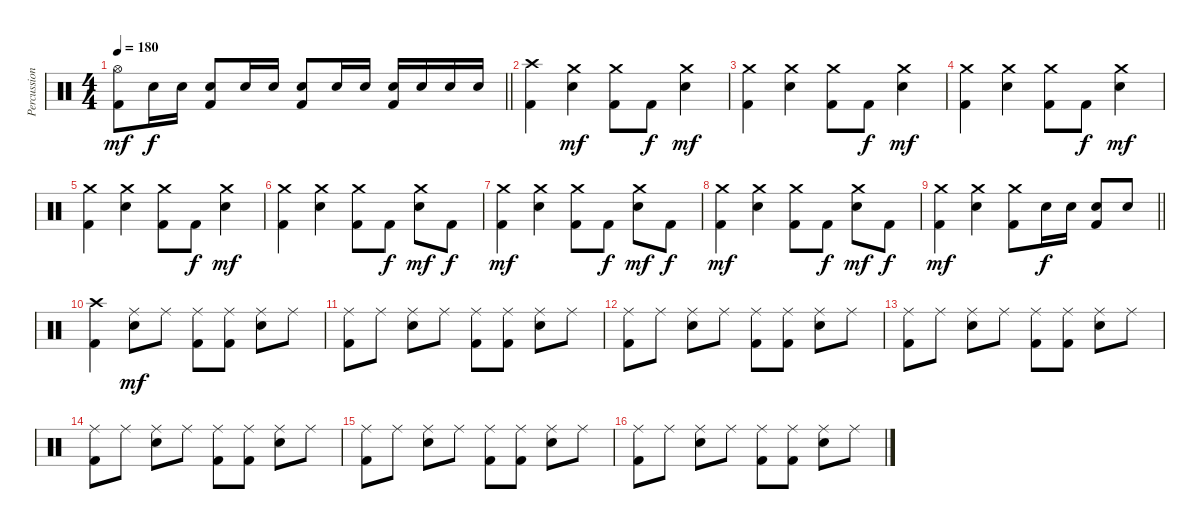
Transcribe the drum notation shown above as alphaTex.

\track ("Percussion" "Percussion") {instrument percussion}
\staff {score}
\articulation defaults
\ts (4 4)
\tempo 180
\clef neutral
\barLineRight lightlight
\ks c
("Hi-Hat (open)" "Kick (hit) 2").8{dy mf} "Electric Snare (hit)".16{dy f} "Electric Snare (hit)".16 ("Electric Snare (hit)" "Kick (hit) 2").8 "Electric Snare (hit)".16 "Electric Snare (hit)".16 ("Electric Snare (hit)" "Kick (hit) 2").8 "Electric Snare (hit)".16 "Electric Snare (hit)".16 ("Electric Snare (hit)" "Kick (hit) 2").16 "Electric Snare (hit)".16 "Electric Snare (hit)".16 "Electric Snare (hit)".16 |
("Crash high (hit)" "Kick (hit) 2").4 ("Crash medium (hit)" "Electric Snare (hit)").4{dy mf} ("Crash medium (hit)" "Kick (hit) 2").8 "Kick (hit) 2".8{dy f} ("Crash medium (hit)" "Electric Snare (hit)").4{dy mf} |
("Crash medium (hit)" "Kick (hit) 2").4 ("Crash medium (hit)" "Electric Snare (hit)").4 ("Crash medium (hit)" "Kick (hit) 2").8 "Kick (hit) 2".8{dy f} ("Crash medium (hit)" "Electric Snare (hit)").4{dy mf} |
("Crash medium (hit)" "Kick (hit) 2").4 ("Crash medium (hit)" "Electric Snare (hit)").4 ("Crash medium (hit)" "Kick (hit) 2").8 "Kick (hit) 2".8{dy f} ("Crash medium (hit)" "Electric Snare (hit)").4{dy mf} |
("Crash medium (hit)" "Kick (hit) 2").4 ("Crash medium (hit)" "Electric Snare (hit)").4 ("Crash medium (hit)" "Kick (hit) 2").8 "Kick (hit) 2".8{dy f} ("Crash medium (hit)" "Electric Snare (hit)").4{dy mf} |
("Crash medium (hit)" "Kick (hit) 2").4 ("Crash medium (hit)" "Electric Snare (hit)").4 ("Crash medium (hit)" "Kick (hit) 2").8 "Kick (hit) 2".8{dy f} ("Crash medium (hit)" "Electric Snare (hit)").8{dy mf} "Kick (hit) 2".8{dy f} |
("Crash medium (hit)" "Kick (hit) 2").4{dy mf} ("Crash medium (hit)" "Electric Snare (hit)").4 ("Crash medium (hit)" "Kick (hit) 2").8 "Kick (hit) 2".8{dy f} ("Crash medium (hit)" "Electric Snare (hit)").8{dy mf} "Kick (hit) 2".8{dy f} |
("Crash medium (hit)" "Kick (hit) 2").4{dy mf} ("Crash medium (hit)" "Electric Snare (hit)").4 ("Crash medium (hit)" "Kick (hit) 2").8 "Kick (hit) 2".8{dy f} ("Crash medium (hit)" "Electric Snare (hit)").8{dy mf} "Kick (hit) 2".8{dy f} |
\barLineRight lightlight
("Crash medium (hit)" "Kick (hit) 2").4{dy mf} ("Crash medium (hit)" "Electric Snare (hit)").4 ("Crash medium (hit)" "Kick (hit) 2").8 "Electric Snare (hit)".16{dy f} "Electric Snare (hit)".16 ("Electric Snare (hit)" "Kick (hit) 2").8 "Electric Snare (hit)".8 |
("Crash high (hit)" "Kick (hit) 2").4 ("Ride (middle)" "Electric Snare (hit)").8{dy mf} "Ride (middle)".8 ("Ride (middle)" "Kick (hit) 2").8 ("Ride (middle)" "Kick (hit) 2").8 ("Ride (middle)" "Electric Snare (hit)").8 "Ride (middle)".8 |
("Ride (middle)" "Kick (hit) 2").8 "Ride (middle)".8 ("Ride (middle)" "Electric Snare (hit)").8 "Ride (middle)".8 ("Ride (middle)" "Kick (hit) 2").8 ("Ride (middle)" "Kick (hit) 2").8 ("Ride (middle)" "Electric Snare (hit)").8 "Ride (middle)".8 |
("Ride (middle)" "Kick (hit) 2").8 "Ride (middle)".8 ("Ride (middle)" "Electric Snare (hit)").8 "Ride (middle)".8 ("Ride (middle)" "Kick (hit) 2").8 ("Ride (middle)" "Kick (hit) 2").8 ("Ride (middle)" "Electric Snare (hit)").8 "Ride (middle)".8 |
("Ride (middle)" "Kick (hit) 2").8 "Ride (middle)".8 ("Ride (middle)" "Electric Snare (hit)").8 "Ride (middle)".8 ("Ride (middle)" "Kick (hit) 2").8 ("Ride (middle)" "Kick (hit) 2").8 ("Ride (middle)" "Electric Snare (hit)").8 "Ride (middle)".8 |
("Ride (middle)" "Kick (hit) 2").8 "Ride (middle)".8 ("Ride (middle)" "Electric Snare (hit)").8 "Ride (middle)".8 ("Ride (middle)" "Kick (hit) 2").8 ("Ride (middle)" "Kick (hit) 2").8 ("Ride (middle)" "Electric Snare (hit)").8 "Ride (middle)".8 |
("Ride (middle)" "Kick (hit) 2").8 "Ride (middle)".8 ("Ride (middle)" "Electric Snare (hit)").8 "Ride (middle)".8 ("Ride (middle)" "Kick (hit) 2").8 ("Ride (middle)" "Kick (hit) 2").8 ("Ride (middle)" "Electric Snare (hit)").8 "Ride (middle)".8 |
("Ride (middle)" "Kick (hit) 2").8 "Ride (middle)".8 ("Ride (middle)" "Electric Snare (hit)").8 "Ride (middle)".8 ("Ride (middle)" "Kick (hit) 2").8 ("Ride (middle)" "Kick (hit) 2").8 ("Ride (middle)" "Electric Snare (hit)").8 "Ride (middle)".8
